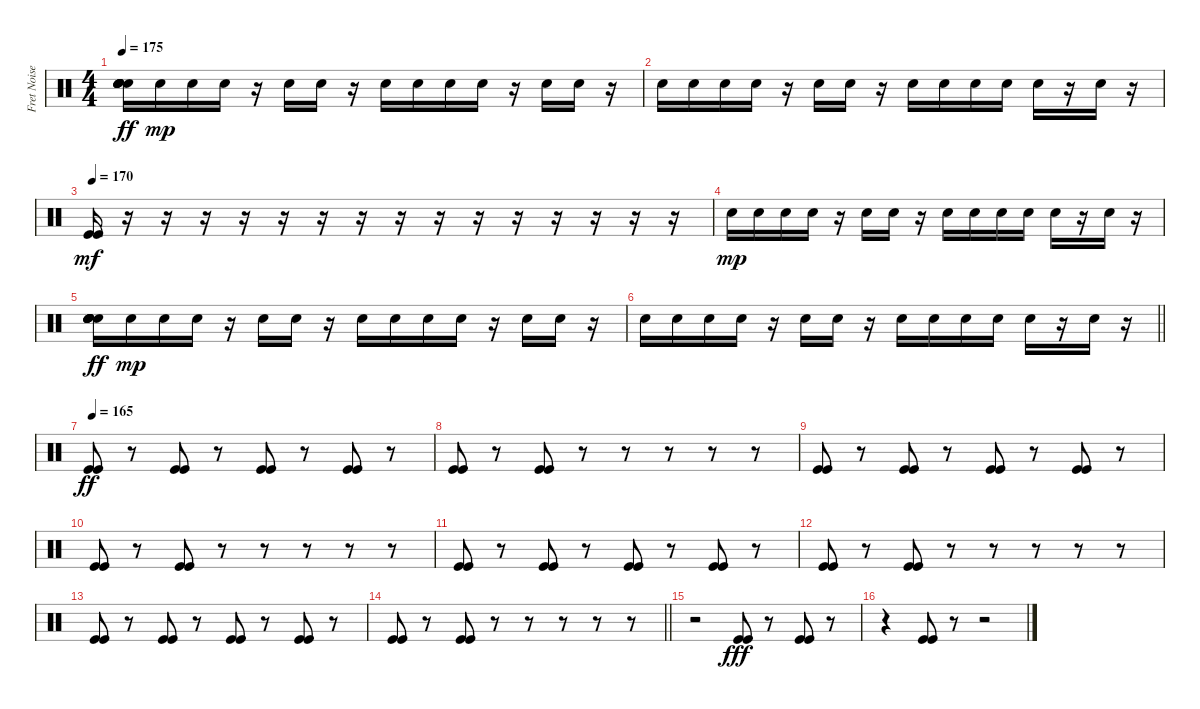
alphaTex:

\track ("Fret Noise / Percussion(corpus)" "Fret Noise") {instrument percussion}
\staff {score}
\articulation defaults
\ts (4 4)
\tempo 175
\clef neutral
\ks c
("Snare (hit) 2" "Snare (hit) 2" "Snare (hit) 2" "Snare (hit) 2" "Snare (hit) 2" "Snare (hit) 2").16{dy ff} "Snare (hit) 2".16{dy mp} "Snare (hit) 2".16 "Snare (hit) 2".16 r.16 "Snare (hit) 2".16 "Snare (hit) 2".16 r.16 "Snare (hit) 2".16 "Snare (hit) 2".16 "Snare (hit) 2".16 "Snare (hit) 2".16 r.16 "Snare (hit) 2".16 "Snare (hit) 2".16 r.16 |
"Snare (hit) 2".16 "Snare (hit) 2".16 "Snare (hit) 2".16 "Snare (hit) 2".16 r.16 "Snare (hit) 2".16 "Snare (hit) 2".16 r.16 "Snare (hit) 2".16 "Snare (hit) 2".16 "Snare (hit) 2".16 "Snare (hit) 2".16 "Snare (hit) 2".16 r.16 "Snare (hit) 2".16 r.16 |
\tempo 170
("Kick (hit)" "Kick (hit)").16{dy mf} r.16 r.16 r.16 r.16 r.16 r.16 r.16 r.16 r.16 r.16 r.16 r.16 r.16 r.16 r.16 |
"Snare (hit) 2".16{dy mp} "Snare (hit) 2".16 "Snare (hit) 2".16 "Snare (hit) 2".16 r.16 "Snare (hit) 2".16 "Snare (hit) 2".16 r.16 "Snare (hit) 2".16 "Snare (hit) 2".16 "Snare (hit) 2".16 "Snare (hit) 2".16 "Snare (hit) 2".16 r.16 "Snare (hit) 2".16 r.16 |
("Snare (hit) 2" "Snare (hit) 2" "Snare (hit) 2" "Snare (hit) 2" "Snare (hit) 2" "Snare (hit) 2").16{dy ff} "Snare (hit) 2".16{dy mp} "Snare (hit) 2".16 "Snare (hit) 2".16 r.16 "Snare (hit) 2".16 "Snare (hit) 2".16 r.16 "Snare (hit) 2".16 "Snare (hit) 2".16 "Snare (hit) 2".16 "Snare (hit) 2".16 r.16 "Snare (hit) 2".16 "Snare (hit) 2".16 r.16 |
\barLineRight lightlight "Snare (hit) 2".16 "Snare (hit) 2".16 "Snare (hit) 2".16 "Snare (hit) 2".16
r.16 "Snare (hit) 2".16 "Snare (hit) 2".16 r.16 "Snare (hit) 2".16 "Snare (hit) 2".16 "Snare (hit) 2".16 "Snare (hit) 2".16 "Snare (hit) 2".16 r.16 "Snare (hit) 2".16 r.16 |
\tempo 165
("Kick (hit)" "Kick (hit)").8{dy ff} r.8 ("Kick (hit)" "Kick (hit)").8 r.8 ("Kick (hit)" "Kick (hit)").8 r.8 ("Kick (hit)" "Kick (hit)").8 r.8 |
("Kick (hit)" "Kick (hit)").8 r.8 ("Kick (hit)" "Kick (hit)").8 r.8 r.8 r.8 r.8 r.8 |
("Kick (hit)" "Kick (hit)").8 r.8 ("Kick (hit)" "Kick (hit)").8 r.8 ("Kick (hit)" "Kick (hit)").8 r.8 ("Kick (hit)" "Kick (hit)").8 r.8 |
("Kick (hit)" "Kick (hit)").8 r.8 ("Kick (hit)" "Kick (hit)").8 r.8 r.8 r.8 r.8 r.8 |
("Kick (hit)" "Kick (hit)").8 r.8 ("Kick (hit)" "Kick (hit)").8 r.8 ("Kick (hit)" "Kick (hit)").8 r.8 ("Kick (hit)" "Kick (hit)").8 r.8 |
("Kick (hit)" "Kick (hit)").8 r.8 ("Kick (hit)" "Kick (hit)").8 r.8 r.8 r.8 r.8 r.8 |
("Kick (hit)" "Kick (hit)").8 r.8 ("Kick (hit)" "Kick (hit)").8 r.8 ("Kick (hit)" "Kick (hit)").8 r.8 ("Kick (hit)" "Kick (hit)").8 r.8 |
\barLineRight lightlight
("Kick (hit)" "Kick (hit)").8 r.8 ("Kick (hit)" "Kick (hit)").8 r.8 r.8 r.8 r.8 r.8 |
r.2 ("Kick (hit)" "Kick (hit)").8{dy fff} r.8 ("Kick (hit)" "Kick (hit)").8 r.8 |
r.4 ("Kick (hit)" "Kick (hit)").8 r.8 r.2
